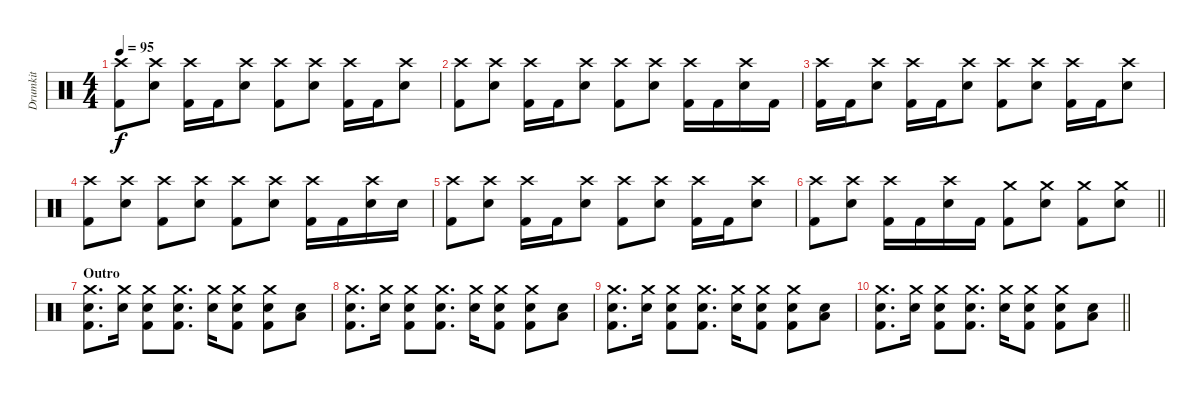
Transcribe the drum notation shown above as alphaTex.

\track ("Drumkit" "Drumkit") {instrument percussion}
\staff {score}
\articulation defaults
\ts (4 4)
\tempo 95
\clef neutral
\ks c
("Crash high (hit)" "Kick (hit) 2").8{dy f} ("Crash high (hit)" "Snare (hit) 2").8 ("Crash high (hit)" "Kick (hit) 2").16 "Kick (hit) 2".16 ("Crash high (hit)" "Snare (hit) 2").8 ("Crash high (hit)" "Kick (hit) 2").8 ("Crash high (hit)" "Snare (hit) 2").8 ("Crash high (hit)" "Kick (hit) 2").16 "Kick (hit) 2".16 ("Crash high (hit)" "Snare (hit) 2").8 |
("Crash high (hit)" "Kick (hit) 2").8 ("Crash high (hit)" "Snare (hit) 2").8 ("Crash high (hit)" "Kick (hit) 2").16 "Kick (hit) 2".16 ("Crash high (hit)" "Snare (hit) 2").8 ("Crash high (hit)" "Kick (hit) 2").8 ("Crash high (hit)" "Snare (hit) 2").8 ("Crash high (hit)" "Kick (hit) 2").16 "Kick (hit) 2".16 ("Crash high (hit)" "Snare (hit) 2").16 "Kick (hit) 2".16 |
("Crash high (hit)" "Kick (hit) 2").16 "Kick (hit) 2".16 ("Crash high (hit)" "Snare (hit) 2").8 ("Crash high (hit)" "Kick (hit) 2").16 "Kick (hit) 2".16 ("Crash high (hit)" "Snare (hit) 2").8 ("Crash high (hit)" "Kick (hit) 2").8 ("Crash high (hit)" "Snare (hit) 2").8 ("Crash high (hit)" "Kick (hit) 2").16 "Kick (hit) 2".16 ("Crash high (hit)" "Snare (hit) 2").8 |
("Crash high (hit)" "Kick (hit) 2").8 ("Crash high (hit)" "Snare (hit) 2").8 ("Crash high (hit)" "Kick (hit) 2").8 ("Crash high (hit)" "Snare (hit) 2").8 ("Crash high (hit)" "Kick (hit) 2").8 ("Crash high (hit)" "Snare (hit) 2").8 ("Crash high (hit)" "Kick (hit) 2").16 "Kick (hit) 2".16 ("Crash high (hit)" "Snare (hit) 2").16 "Snare (hit) 2".16 |
("Crash high (hit)" "Kick (hit) 2").8 ("Crash high (hit)" "Snare (hit) 2").8 ("Crash high (hit)" "Kick (hit) 2").16 "Kick (hit) 2".16 ("Crash high (hit)" "Snare (hit) 2").8 ("Crash high (hit)" "Kick (hit) 2").8 ("Crash high (hit)" "Snare (hit) 2").8 ("Crash high (hit)" "Kick (hit) 2").16 "Kick (hit) 2".16 ("Crash high (hit)" "Snare (hit) 2").8 |
\barLineRight lightlight
("Crash high (hit)" "Kick (hit) 2").8 ("Crash high (hit)" "Snare (hit) 2").8 ("Crash high (hit)" "Kick (hit) 2").16 "Kick (hit) 2".16 ("Crash high (hit)" "Snare (hit) 2").16 "Kick (hit) 2".16 ("Crash medium (hit)" "Kick (hit) 2").8 ("Crash medium (hit)" "Snare (hit) 2").8 ("Crash medium (hit)" "Kick (hit) 2").8 ("Crash medium (hit)" "Snare (hit) 2").8 |
\section ("" "Outro")
("Crash medium (hit)" "Snare (hit) 2" "Kick (hit) 2").8{d} ("Crash medium (hit)" "Snare (hit) 2").16 ("Crash medium (hit)" "Snare (hit) 2" "Kick (hit) 2").8 ("Crash medium (hit)" "Snare (hit) 2" "Kick (hit) 2").8{d} ("Crash medium (hit)" "Snare (hit) 2").16 ("Crash medium (hit)" "Snare (hit) 2" "Kick (hit) 2").8 ("Crash medium (hit)" "Snare (hit) 2" "Kick (hit) 2").8 ("Low Floor Tom (hit)" "Snare (hit) 2").8 |
("Crash medium (hit)" "Snare (hit) 2" "Kick (hit) 2").8{d} ("Crash medium (hit)" "Snare (hit) 2").16 ("Crash medium (hit)" "Snare (hit) 2" "Kick (hit) 2").8 ("Crash medium (hit)" "Snare (hit) 2" "Kick (hit) 2").8{d} ("Crash medium (hit)" "Snare (hit) 2").16 ("Crash medium (hit)" "Snare (hit) 2" "Kick (hit) 2").8 ("Crash medium (hit)" "Snare (hit) 2" "Kick (hit) 2").8 ("Snare (hit) 2" "Low Floor Tom (hit)").8 |
("Crash medium (hit)" "Snare (hit) 2" "Kick (hit) 2").8{d} ("Crash medium (hit)" "Snare (hit) 2").16 ("Crash medium (hit)" "Snare (hit) 2" "Kick (hit) 2").8 ("Crash medium (hit)" "Snare (hit) 2" "Kick (hit) 2").8{d} ("Crash medium (hit)" "Snare (hit) 2").16 ("Crash medium (hit)" "Snare (hit) 2" "Kick (hit) 2").8 ("Crash medium (hit)" "Snare (hit) 2" "Kick (hit) 2").8 ("Low Floor Tom (hit)" "Snare (hit) 2").8 |
\barLineRight lightlight
("Crash medium (hit)" "Snare (hit) 2" "Kick (hit) 2").8{d} ("Crash medium (hit)" "Snare (hit) 2").16 ("Crash medium (hit)" "Snare (hit) 2" "Kick (hit) 2").8 ("Crash medium (hit)" "Snare (hit) 2" "Kick (hit) 2").8{d} ("Crash medium (hit)" "Snare (hit) 2").16 ("Crash medium (hit)" "Snare (hit) 2" "Kick (hit) 2").8 ("Crash medium (hit)" "Snare (hit) 2" "Kick (hit) 2").8 ("Snare (hit) 2" "Low Floor Tom (hit)").8
